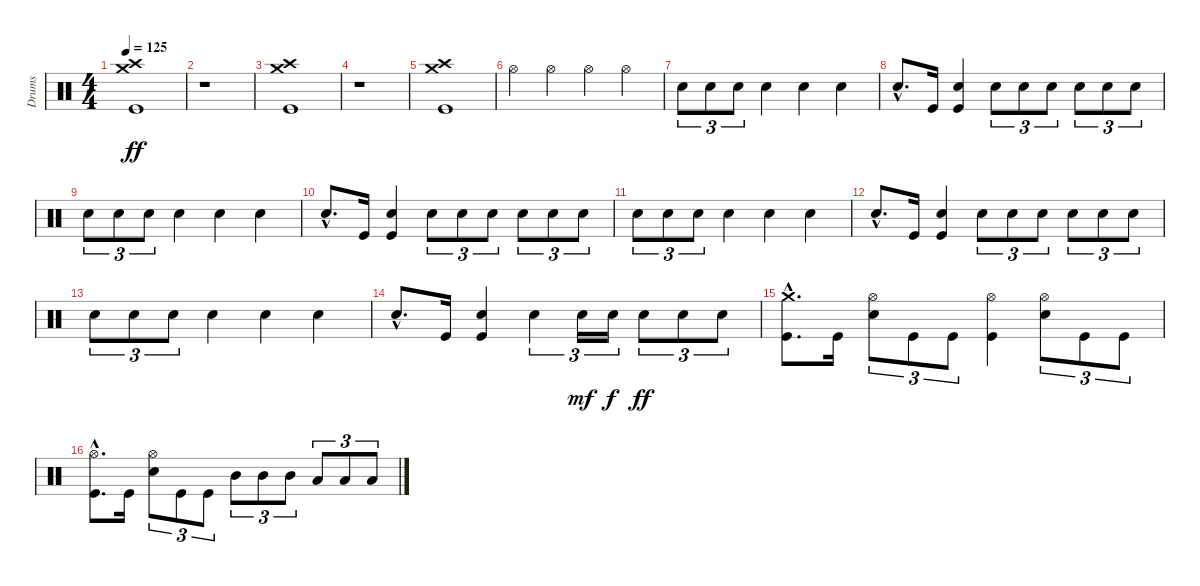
\track ("Drums" "Drums") {instrument percussion}
\staff {score}
\articulation defaults
\ts (4 4)
\tempo 125
\clef neutral
\ks c
("Crash medium (hit)" "Crash high (hit)" "Kick (hit)").1{dy ff} |
r.1 |
("Crash medium (hit)" "Crash high (hit)" "Kick (hit)").1 |
r.1 |
("Crash medium (hit)" "Crash high (hit)" "Kick (hit)").1 |
"Hi-Hat (open)".4 "Hi-Hat (open)".4 "Hi-Hat (open)".4 "Hi-Hat (open)".4 |
"Electric Snare (hit)".8{tu (3 2)} "Electric Snare (hit)".8{tu (3 2)} "Electric Snare (hit)".8{tu (3 2)} "Electric Snare (hit)".4 "Electric Snare (hit)".4 "Electric Snare (hit)".4 |
"Electric Snare (hit)"{hac}.8{d} "Kick (hit)".16 ("Electric Snare (hit)" "Kick (hit)").4 "Electric Snare (hit)".8{tu (3 2)} "Electric Snare (hit)".8{tu (3 2)} "Electric Snare (hit)".8{tu (3 2)} "Electric Snare (hit)".8{tu (3 2)} "Electric Snare (hit)".8{tu (3 2)} "Electric Snare (hit)".8{tu (3 2)} |
"Electric Snare (hit)".8{tu (3 2)} "Electric Snare (hit)".8{tu (3 2)} "Electric Snare (hit)".8{tu (3 2)} "Electric Snare (hit)".4 "Electric Snare (hit)".4 "Electric Snare (hit)".4 |
"Electric Snare (hit)"{hac}.8{d} "Kick (hit)".16 ("Electric Snare (hit)" "Kick (hit)").4 "Electric Snare (hit)".8{tu (3 2)} "Electric Snare (hit)".8{tu (3 2)} "Electric Snare (hit)".8{tu (3 2)} "Electric Snare (hit)".8{tu (3 2)} "Electric Snare (hit)".8{tu (3 2)} "Electric Snare (hit)".8{tu (3 2)} |
"Electric Snare (hit)".8{tu (3 2)} "Electric Snare (hit)".8{tu (3 2)} "Electric Snare (hit)".8{tu (3 2)} "Electric Snare (hit)".4 "Electric Snare (hit)".4 "Electric Snare (hit)".4 |
"Electric Snare (hit)"{hac}.8{d} "Kick (hit)".16 ("Electric Snare (hit)" "Kick (hit)").4 "Electric Snare (hit)".8{tu (3 2)} "Electric Snare (hit)".8{tu (3 2)} "Electric Snare (hit)".8{tu (3 2)} "Electric Snare (hit)".8{tu (3 2)} "Electric Snare (hit)".8{tu (3 2)} "Electric Snare (hit)".8{tu (3 2)} |
"Electric Snare (hit)".8{tu (3 2)} "Electric Snare (hit)".8{tu (3 2)} "Electric Snare (hit)".8{tu (3 2)} "Electric Snare (hit)".4 "Electric Snare (hit)".4 "Electric Snare (hit)".4 |
"Electric Snare (hit)"{hac}.8{d} "Kick (hit)".16 ("Electric Snare (hit)" "Kick (hit)").4 "Electric Snare (hit)".4{tu (3 2)} "Electric Snare (hit)".16{tu (3 2) dy mf} "Electric Snare (hit)".16{tu (3 2) dy f} "Electric Snare (hit)".8{tu (3 2) dy ff} "Electric Snare (hit)".8{tu (3 2)} "Electric Snare (hit)".8{tu (3 2)} |
("Crash medium (hit)"{hac} "Kick (hit)"{hac}).8{d} "Kick (hit)".16 ("Hi-Hat (open)" "Electric Snare (hit)").8{tu (3 2)} "Kick (hit)".8{tu (3 2)} "Kick (hit)".8{tu (3 2)} ("Hi-Hat (open)" "Kick (hit)").4 ("Hi-Hat (open)" "Electric Snare (hit)").8{tu (3 2)} "Kick (hit)".8{tu (3 2)} "Kick (hit)".8{tu (3 2)} |
("Hi-Hat (open)"{hac} "Kick (hit)"{hac}).8{d} "Kick (hit)".16 ("Hi-Hat (open)" "Electric Snare (hit)").8{tu (3 2)} "Kick (hit)".8{tu (3 2)} "Kick (hit)".8{tu (3 2)} "Mid Tom (hit)".8{tu (3 2)} "Mid Tom (hit)".8{tu (3 2)} "Mid Tom (hit)".8{tu (3 2)} "Low Tom (hit)".8{tu (3 2)} "Low Tom (hit)".8{tu (3 2)} "Low Tom (hit)".8{tu (3 2)}
